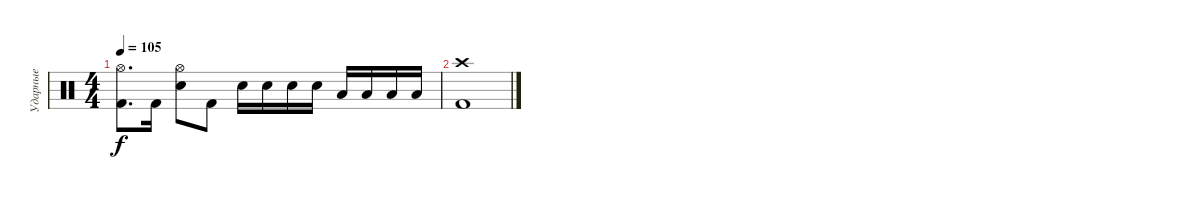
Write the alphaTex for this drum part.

\track ("Ударные" "Ударные") {instrument percussion}
\staff {score}
\articulation defaults
\ts (4 4)
\tempo 105
\clef neutral
\ks c
("Kick (hit) 2" "Hi-Hat (open)").8{d dy f} "Kick (hit) 2".16 ("Snare (hit) 2" "Hi-Hat (open)").8 "Kick (hit) 2".8 "Snare (hit) 2".16 "Snare (hit) 2".16 "Snare (hit) 2".16 "Snare (hit) 2".16 "Low Tom (hit)".16 "Low Tom (hit)".16 "Low Tom (hit)".16 "Low Tom (hit)".16 |
("Kick (hit) 2" "Crash high (hit)").1
